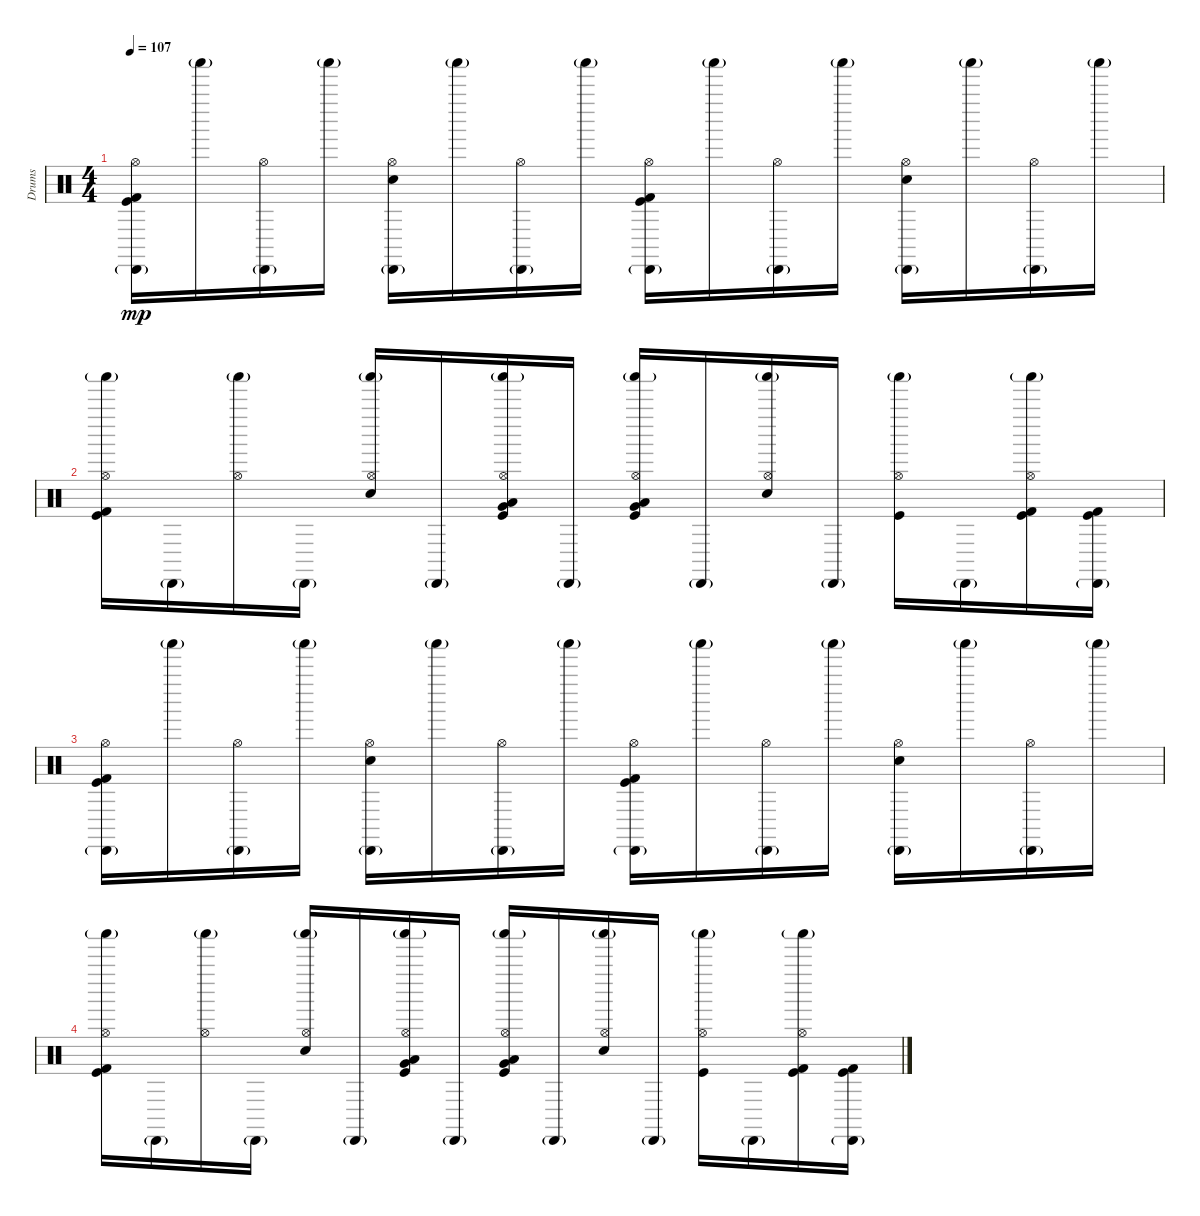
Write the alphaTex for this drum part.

\track ("Drums" "Drums") {instrument percussion}
\staff {score}
\articulation defaults
\ts (4 4)
\tempo 107
\clef neutral
\ks c
("Hi-Hat (open)" "Cabasa (hit)"{g} "Kick (hit) 2" "Kick (hit)").16{dy mp} "Shaker (hit)"{g}.16 ("Hi-Hat (open)" "Cabasa (hit)"{g}).16 "Shaker (hit)"{g}.16 ("Hi-Hat (open)" "Cabasa (hit)"{g} "Electric Snare (hit)").16 "Shaker (hit)"{g}.16 ("Hi-Hat (open)" "Cabasa (hit)"{g}).16 "Shaker (hit)"{g}.16 ("Hi-Hat (open)" "Cabasa (hit)"{g} "Kick (hit) 2" "Kick (hit)").16 "Shaker (hit)"{g}.16 ("Hi-Hat (open)" "Cabasa (hit)"{g}).16 "Shaker (hit)"{g}.16 ("Hi-Hat (open)" "Cabasa (hit)"{g} "Electric Snare (hit)").16 "Shaker (hit)"{g}.16 ("Hi-Hat (open)" "Cabasa (hit)"{g}).16 "Shaker (hit)"{g}.16 |
("Hi-Hat (open)" "Shaker (hit)"{g} "Kick (hit) 2" "Kick (hit)").16 "Cabasa (hit)"{g}.16 ("Hi-Hat (open)" "Shaker (hit)"{g}).16 "Cabasa (hit)"{g}.16 ("Hi-Hat (open)" "Shaker (hit)"{g} "Electric Snare (hit)").16 "Cabasa (hit)"{g}.16 ("Hi-Hat (open)" "Shaker (hit)"{g} "Kick (hit)" "Very Low Tom (hit)" "Low Tom (hit)").16 "Cabasa (hit)"{g}.16 ("Hi-Hat (open)" "Shaker (hit)"{g} "Kick (hit)" "Very Low Tom (hit)" "Low Tom (hit)").16 "Cabasa (hit)"{g}.16 ("Hi-Hat (open)" "Shaker (hit)"{g} "Electric Snare (hit)").16 "Cabasa (hit)"{g}.16 ("Hi-Hat (open)" "Shaker (hit)"{g} "Kick (hit)").16 "Cabasa (hit)"{g}.16 ("Hi-Hat (open)" "Shaker (hit)"{g} "Kick (hit) 2" "Kick (hit)").16 ("Cabasa (hit)"{g} "Kick (hit) 2" "Kick (hit)").16 |
("Hi-Hat (open)" "Cabasa (hit)"{g} "Kick (hit) 2" "Kick (hit)").16 "Shaker (hit)"{g}.16 ("Hi-Hat (open)" "Cabasa (hit)"{g}).16 "Shaker (hit)"{g}.16 ("Hi-Hat (open)" "Cabasa (hit)"{g} "Electric Snare (hit)").16 "Shaker (hit)"{g}.16 ("Hi-Hat (open)" "Cabasa (hit)"{g}).16 "Shaker (hit)"{g}.16 ("Hi-Hat (open)" "Cabasa (hit)"{g} "Kick (hit) 2" "Kick (hit)").16 "Shaker (hit)"{g}.16 ("Hi-Hat (open)" "Cabasa (hit)"{g}).16 "Shaker (hit)"{g}.16 ("Hi-Hat (open)" "Cabasa (hit)"{g} "Electric Snare (hit)").16 "Shaker (hit)"{g}.16 ("Hi-Hat (open)" "Cabasa (hit)"{g}).16 "Shaker (hit)"{g}.16 |
("Hi-Hat (open)" "Shaker (hit)"{g} "Kick (hit) 2" "Kick (hit)").16 "Cabasa (hit)"{g}.16 ("Hi-Hat (open)" "Shaker (hit)"{g}).16 "Cabasa (hit)"{g}.16 ("Hi-Hat (open)" "Shaker (hit)"{g} "Electric Snare (hit)").16 "Cabasa (hit)"{g}.16 ("Hi-Hat (open)" "Shaker (hit)"{g} "Kick (hit)" "Very Low Tom (hit)" "Low Tom (hit)").16 "Cabasa (hit)"{g}.16 ("Hi-Hat (open)" "Shaker (hit)"{g} "Kick (hit)" "Very Low Tom (hit)" "Low Tom (hit)").16 "Cabasa (hit)"{g}.16 ("Hi-Hat (open)" "Shaker (hit)"{g} "Electric Snare (hit)").16 "Cabasa (hit)"{g}.16 ("Hi-Hat (open)" "Shaker (hit)"{g} "Kick (hit)").16 "Cabasa (hit)"{g}.16 ("Hi-Hat (open)" "Shaker (hit)"{g} "Kick (hit) 2" "Kick (hit)").16 ("Cabasa (hit)"{g} "Kick (hit) 2" "Kick (hit)").16
